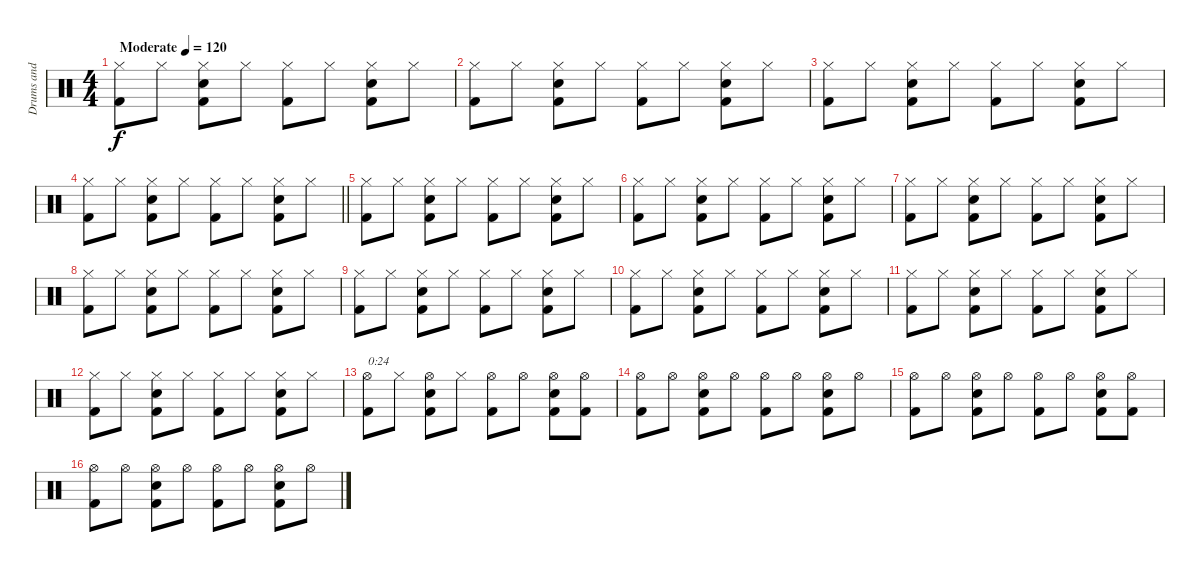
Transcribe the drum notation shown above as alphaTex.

\track ("Drums and Percussie" "Drums and ") {instrument percussion}
\staff {score}
\articulation defaults
\ts (4 4)
\tempo (120 "Moderate")
\clef neutral
\ks c
("Kick (hit) 2" "Hi-Hat (closed)").8{dy f} "Hi-Hat (closed)".8 ("Kick (hit) 2" "Snare (hit) 2" "Hi-Hat (closed)").8 "Hi-Hat (closed)".8 ("Kick (hit) 2" "Hi-Hat (closed)").8 "Hi-Hat (closed)".8 ("Kick (hit) 2" "Snare (hit) 2" "Hi-Hat (closed)").8 "Hi-Hat (closed)".8 |
("Hi-Hat (closed)" "Kick (hit) 2").8 "Hi-Hat (closed)".8 ("Hi-Hat (closed)" "Kick (hit) 2" "Snare (hit) 2").8 "Hi-Hat (closed)".8 ("Hi-Hat (closed)" "Kick (hit) 2").8 "Hi-Hat (closed)".8 ("Snare (hit) 2" "Kick (hit) 2" "Hi-Hat (closed)").8 "Hi-Hat (closed)".8 |
("Kick (hit) 2" "Hi-Hat (closed)").8 "Hi-Hat (closed)".8 ("Kick (hit) 2" "Snare (hit) 2" "Hi-Hat (closed)").8 "Hi-Hat (closed)".8 ("Hi-Hat (closed)" "Kick (hit) 2").8 "Hi-Hat (closed)".8 ("Kick (hit) 2" "Snare (hit) 2" "Hi-Hat (closed)").8 "Hi-Hat (closed)".8 |
\barLineRight lightlight
("Kick (hit) 2" "Hi-Hat (closed)").8 "Hi-Hat (closed)".8 ("Kick (hit) 2" "Snare (hit) 2" "Hi-Hat (closed)").8 "Hi-Hat (closed)".8 ("Kick (hit) 2" "Hi-Hat (closed)").8 "Hi-Hat (closed)".8 ("Kick (hit) 2" "Hi-Hat (closed)" "Snare (hit) 2").8 "Hi-Hat (closed)".8 |
("Hi-Hat (closed)" "Kick (hit) 2").8 "Hi-Hat (closed)".8 ("Snare (hit) 2" "Kick (hit) 2" "Hi-Hat (closed)").8 "Hi-Hat (closed)".8 ("Hi-Hat (closed)" "Kick (hit) 2").8 "Hi-Hat (closed)".8 ("Kick (hit) 2" "Snare (hit) 2" "Hi-Hat (closed)").8 "Hi-Hat (closed)".8 |
("Hi-Hat (closed)" "Kick (hit) 2").8 "Hi-Hat (closed)".8 ("Kick (hit) 2" "Hi-Hat (closed)" "Snare (hit) 2").8 "Hi-Hat (closed)".8 ("Hi-Hat (closed)" "Kick (hit) 2").8 "Hi-Hat (closed)".8 ("Kick (hit) 2" "Hi-Hat (closed)" "Snare (hit) 2").8 "Hi-Hat (closed)".8 |
("Kick (hit) 2" "Hi-Hat (closed)").8 "Hi-Hat (closed)".8 ("Kick (hit) 2" "Snare (hit) 2" "Hi-Hat (closed)").8 "Hi-Hat (closed)".8 ("Kick (hit) 2" "Hi-Hat (closed)").8 "Hi-Hat (closed)".8 ("Kick (hit) 2" "Snare (hit) 2" "Hi-Hat (closed)").8 "Hi-Hat (closed)".8 |
("Kick (hit) 2" "Hi-Hat (closed)").8 "Hi-Hat (closed)".8 ("Hi-Hat (closed)" "Kick (hit) 2" "Snare (hit) 2").8 "Hi-Hat (closed)".8 ("Hi-Hat (closed)" "Kick (hit) 2").8 "Hi-Hat (closed)".8 ("Snare (hit) 2" "Kick (hit) 2" "Hi-Hat (closed)").8 "Hi-Hat (closed)".8 |
("Hi-Hat (closed)" "Kick (hit) 2").8 "Hi-Hat (closed)".8 ("Hi-Hat (closed)" "Snare (hit) 2" "Kick (hit) 2").8 "Hi-Hat (closed)".8 ("Kick (hit) 2" "Hi-Hat (closed)").8 "Hi-Hat (closed)".8 ("Snare (hit) 2" "Kick (hit) 2" "Hi-Hat (closed)").8 "Hi-Hat (closed)".8 |
("Hi-Hat (closed)" "Kick (hit) 2").8 "Hi-Hat (closed)".8 ("Kick (hit) 2" "Hi-Hat (closed)" "Snare (hit) 2").8 "Hi-Hat (closed)".8 ("Hi-Hat (closed)" "Kick (hit) 2").8 "Hi-Hat (closed)".8 ("Kick (hit) 2" "Hi-Hat (closed)" "Snare (hit) 2").8 "Hi-Hat (closed)".8 |
("Kick (hit) 2" "Hi-Hat (closed)").8 "Hi-Hat (closed)".8 ("Kick (hit) 2" "Snare (hit) 2" "Hi-Hat (closed)").8 "Hi-Hat (closed)".8 ("Kick (hit) 2" "Hi-Hat (closed)").8 "Hi-Hat (closed)".8 ("Kick (hit) 2" "Snare (hit) 2" "Hi-Hat (closed)").8 "Hi-Hat (closed)".8 |
("Kick (hit) 2" "Hi-Hat (closed)").8 "Hi-Hat (closed)".8 ("Hi-Hat (closed)" "Kick (hit) 2" "Snare (hit) 2").8 "Hi-Hat (closed)".8 ("Hi-Hat (closed)" "Kick (hit) 2").8 "Hi-Hat (closed)".8 ("Hi-Hat (closed)" "Snare (hit) 2" "Kick (hit) 2").8 "Hi-Hat (closed)".8 |
("Hi-Hat (open)" "Kick (hit) 2").8{txt "0:24"} "Hi-Hat (closed)".8 ("Kick (hit) 2" "Snare (hit) 2" "Hi-Hat (open)").8 "Hi-Hat (closed)".8 ("Hi-Hat (open)" "Kick (hit) 2").8 "Hi-Hat (open)".8 ("Snare (hit) 2" "Hi-Hat (open)" "Kick (hit) 2").8 ("Kick (hit) 2" "Hi-Hat (open)").8 |
("Kick (hit) 2" "Hi-Hat (open)").8 "Hi-Hat (open)".8 ("Hi-Hat (open)" "Kick (hit) 2" "Snare (hit) 2").8 "Hi-Hat (open)".8 ("Hi-Hat (open)" "Kick (hit) 2").8 "Hi-Hat (open)".8 ("Snare (hit) 2" "Kick (hit) 2" "Hi-Hat (open)").8 "Hi-Hat (open)".8 |
("Hi-Hat (open)" "Kick (hit) 2").8 "Hi-Hat (open)".8 ("Kick (hit) 2" "Snare (hit) 2" "Hi-Hat (open)").8 "Hi-Hat (open)".8 ("Kick (hit) 2" "Hi-Hat (open)").8 "Hi-Hat (open)".8 ("Kick (hit) 2" "Snare (hit) 2" "Hi-Hat (open)").8 ("Kick (hit) 2" "Hi-Hat (open)").8 |
("Kick (hit) 2" "Hi-Hat (open)").8 "Hi-Hat (open)".8 ("Snare (hit) 2" "Kick (hit) 2" "Hi-Hat (open)").8 "Hi-Hat (open)".8 ("Hi-Hat (open)" "Kick (hit) 2").8 "Hi-Hat (open)".8 ("Kick (hit) 2" "Snare (hit) 2" "Hi-Hat (open)").8 "Hi-Hat (open)".8
